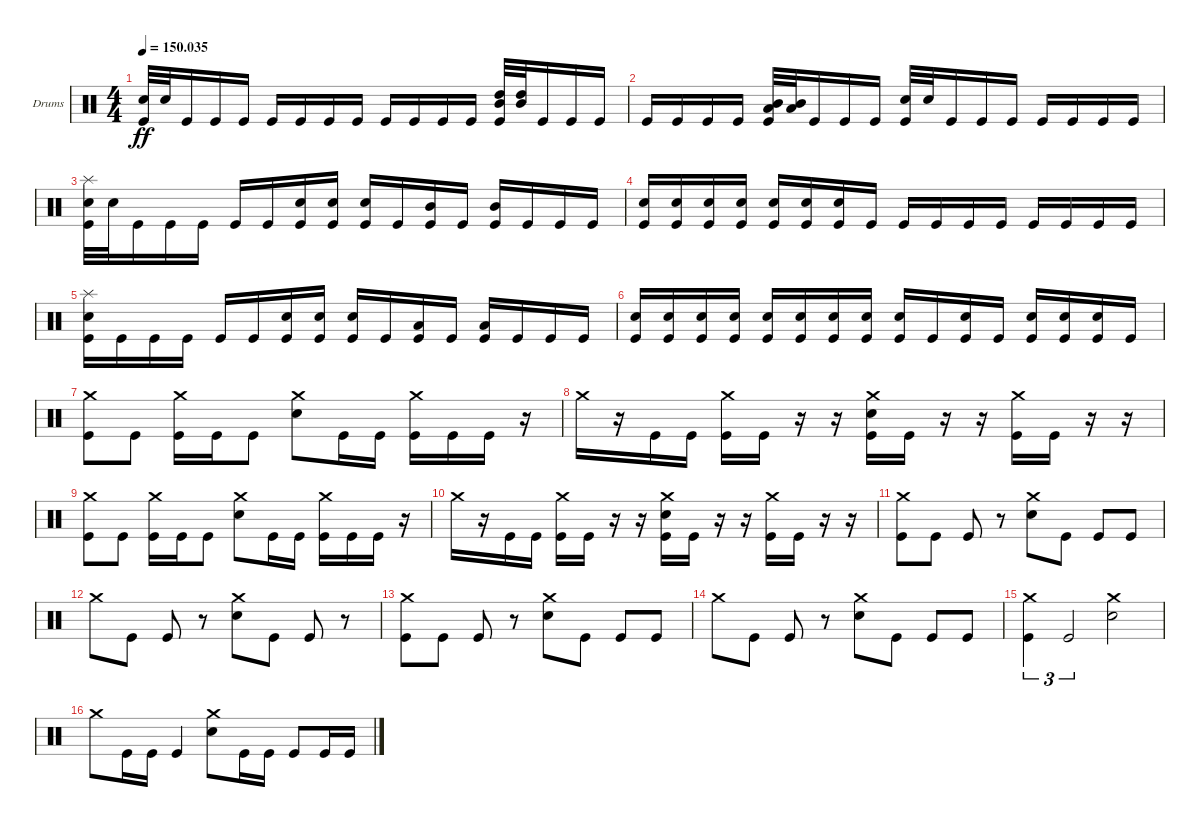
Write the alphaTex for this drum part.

\bracketExtendMode groupsimilarinstruments
\firstSystemTrackNameOrientation horizontal
\otherSystemsTrackNameOrientation horizontal
\track ("Drumkit" "Drums") {instrument percussion}
\staff {score}
\articulation defaults
\ts (4 4)
\tempo
150.035
\accidentals auto
\clef neutral
\ottava regular
\simile none
\ks c
("Snare (hit) 2" "Kick (hit)").32{dy ff} "Snare (hit) 2".32 "Kick (hit)".16 "Kick (hit)".16 "Kick (hit)".16 "Kick (hit)".16 "Kick (hit)".16 "Kick (hit)".16 "Kick (hit)".16 "Kick (hit)".16 "Kick (hit)".16 "Kick (hit)".16 "Kick (hit)".16 ("Kick (hit)" "High Tom (hit)" "Mid Tom (hit)").32 ("High Tom (hit)" "Mid Tom (hit)").32 "Kick (hit)".16 "Kick (hit)".16 "Kick (hit)".16 |
"Kick (hit)".16 "Kick (hit)".16 "Kick (hit)".16 "Kick (hit)".16 ("Kick (hit)" "Low Tom (hit)" "Mid Tom (hit)").32 ("Low Tom (hit)" "Mid Tom (hit)").32 "Kick (hit)".16 "Kick (hit)".16 "Kick (hit)".16 ("Kick (hit)" "Snare (hit) 2").32 "Snare (hit) 2".32 "Kick (hit)".16 "Kick (hit)".16 "Kick (hit)".16 "Kick (hit)".16 "Kick (hit)".16 "Kick (hit)".16 "Kick (hit)".16 |
("Snare (hit) 2" "Splash (hit)" "Kick (hit)").32 "Snare (hit) 2".32 "Kick (hit)".16 "Kick (hit)".16 "Kick (hit)".16 "Kick (hit)".16 "Kick (hit)".16 ("Kick (hit)" "Snare (hit) 2").16 ("Kick (hit)" "Snare (hit) 2").16 ("Kick (hit)" "Snare (hit) 2").16 "Kick (hit)".16 ("Kick (hit)" "Mid Tom (hit)").16 "Kick (hit)".16 ("Kick (hit)" "Mid Tom (hit)").16 "Kick (hit)".16 "Kick (hit)".16 "Kick (hit)".16 |
("Kick (hit)" "Snare (hit) 2").16 ("Kick (hit)" "Snare (hit) 2").16 ("Kick (hit)" "Snare (hit) 2").16 ("Kick (hit)" "Snare (hit) 2").16 ("Kick (hit)" "Snare (hit) 2").16 ("Kick (hit)" "Snare (hit) 2").16 ("Kick (hit)" "Snare (hit) 2").16 "Kick (hit)".16 "Kick (hit)".16 "Kick (hit)".16 "Kick (hit)".16 "Kick (hit)".16 "Kick (hit)".16 "Kick (hit)".16 "Kick (hit)".16 "Kick (hit)".16 |
("Kick (hit)" "Splash (hit)" "Snare (hit) 2").16 "Kick (hit)".16 "Kick (hit)".16 "Kick (hit)".16 "Kick (hit)".16 "Kick (hit)".16 ("Kick (hit)" "Snare (hit) 2").16 ("Kick (hit)" "Snare (hit) 2").16 ("Kick (hit)" "Snare (hit) 2").16 "Kick (hit)".16 ("Kick (hit)" "Low Tom (hit)").16 "Kick (hit)".16 ("Kick (hit)" "Low Tom (hit)").16 "Kick (hit)".16 "Kick (hit)".16 "Kick (hit)".16 |
("Kick (hit)" "Snare (hit) 2").16 ("Kick (hit)" "Snare (hit) 2").16 ("Kick (hit)" "Snare (hit) 2").16 ("Kick (hit)" "Snare (hit) 2").16 ("Kick (hit)" "Snare (hit) 2").16 ("Kick (hit)" "Snare (hit) 2").16 ("Kick (hit)" "Snare (hit) 2").16 ("Kick (hit)" "Snare (hit) 2").16 ("Kick (hit)" "Snare (hit) 2").16 "Kick (hit)".16 ("Kick (hit)" "Snare (hit) 2").16 "Kick (hit)".16 ("Kick (hit)" "Snare (hit) 2").16 ("Kick (hit)" "Snare (hit) 2").16 ("Kick (hit)" "Snare (hit) 2").16 "Kick (hit)".16 |
("Kick (hit)" "Crash medium (hit)").8 "Kick (hit)".8 ("Kick (hit)" "Crash medium (hit)").16 "Kick (hit)".16 "Kick (hit)".8 ("Crash medium (hit)" "Snare (hit) 2").8 "Kick (hit)".16 "Kick (hit)".16 ("Kick (hit)" "Crash medium (hit)").16 "Kick (hit)".16 "Kick (hit)".16 r.16 |
"Crash medium (hit)".16 r.16 "Kick (hit)".16 "Kick (hit)".16 ("Kick (hit)" "Crash medium (hit)").16 "Kick (hit)".16 r.16 r.16 ("Kick (hit)" "Crash medium (hit)" "Snare (hit) 2").16 "Kick (hit)".16 r.16 r.16 ("Kick (hit)" "Crash medium (hit)").16 "Kick (hit)".16 r.16 r.16 |
("Kick (hit)" "Crash medium (hit)").8 "Kick (hit)".8 ("Kick (hit)" "Crash medium (hit)").16 "Kick (hit)".16 "Kick (hit)".8 ("Crash medium (hit)" "Snare (hit) 2").8 "Kick (hit)".16 "Kick (hit)".16 ("Kick (hit)" "Crash medium (hit)").16 "Kick (hit)".16 "Kick (hit)".16 r.16 |
"Crash medium (hit)".16 r.16 "Kick (hit)".16 "Kick (hit)".16 ("Kick (hit)" "Crash medium (hit)").16 "Kick (hit)".16 r.16 r.16 ("Kick (hit)" "Crash medium (hit)" "Snare (hit) 2").16 "Kick (hit)".16 r.16 r.16 ("Kick (hit)" "Crash medium (hit)").16 "Kick (hit)".16 r.16 r.16 |
("Crash medium (hit)" "Kick (hit)").8 "Kick (hit)".8 "Kick (hit)".8 r.8 ("Crash medium (hit)" "Snare (hit) 2").8 "Kick (hit)".8 "Kick (hit)".8 "Kick (hit)".8 |
"Crash medium (hit)".8 "Kick (hit)".8 "Kick (hit)".8 r.8 ("Crash medium (hit)" "Snare (hit) 2").8 "Kick (hit)".8 "Kick (hit)".8 r.8 |
("Crash medium (hit)" "Kick (hit)").8 "Kick (hit)".8 "Kick (hit)".8 r.8 ("Crash medium (hit)" "Snare (hit) 2").8 "Kick (hit)".8 "Kick (hit)".8 "Kick (hit)".8 |
"Crash medium (hit)".8 "Kick (hit)".8 "Kick (hit)".8 r.8 ("Crash medium (hit)" "Snare (hit) 2").8 "Kick (hit)".8 "Kick (hit)".8 "Kick (hit)".8 |
("Crash medium (hit)" "Kick (hit)").4{tu (3 2)} "Kick (hit)".2{tu (3 2)} ("Crash medium (hit)" "Snare (hit) 2").2 |
"Crash medium (hit)".8 "Kick (hit)".16 "Kick (hit)".16 "Kick (hit)".4 ("Crash medium (hit)" "Snare (hit) 2").8 "Kick (hit)".16 "Kick (hit)".16 "Kick (hit)".8 "Kick (hit)".16 "Kick (hit)".16
